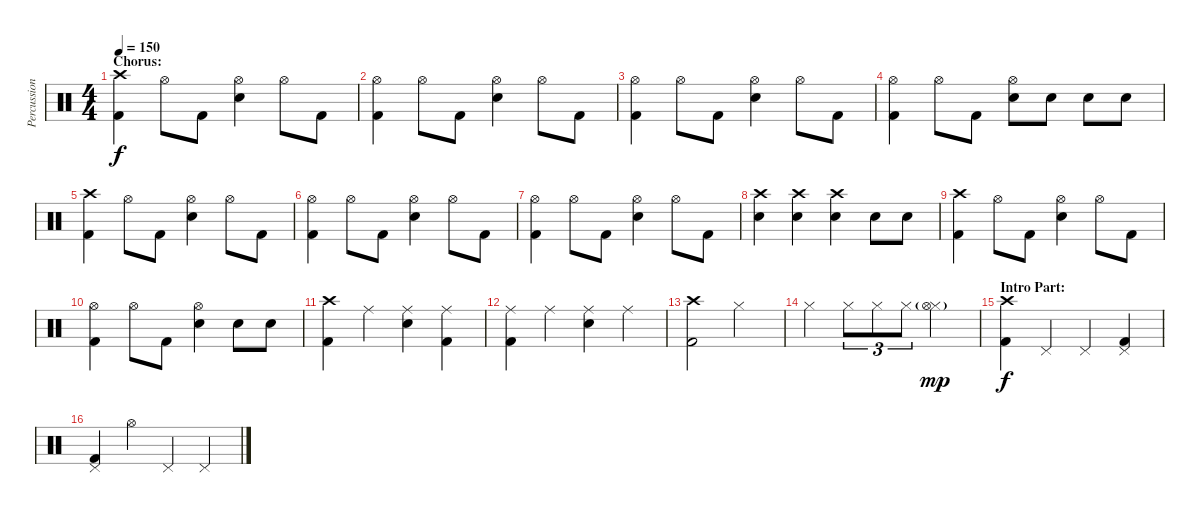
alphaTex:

\track ("Percussion" "Percussion") {instrument percussion}
\staff {score}
\articulation defaults
\ts (4 4)
\section ("" "Chorus:")
\tempo 150
\clef neutral
\ks c
("Crash high (hit)" "Kick (hit) 2").4{dy f} "Hi-Hat (open)".8 "Kick (hit) 2".8 ("Hi-Hat (open)" "Electric Snare (hit)").4 "Hi-Hat (open)".8 "Kick (hit) 2".8 |
("Hi-Hat (open)" "Kick (hit) 2").4 "Hi-Hat (open)".8 "Kick (hit) 2".8 ("Hi-Hat (open)" "Electric Snare (hit)").4 "Hi-Hat (open)".8 "Kick (hit) 2".8 |
("Hi-Hat (open)" "Kick (hit) 2").4 "Hi-Hat (open)".8 "Kick (hit) 2".8 ("Hi-Hat (open)" "Electric Snare (hit)").4 "Hi-Hat (open)".8 "Kick (hit) 2".8 |
("Hi-Hat (open)" "Kick (hit) 2").4 "Hi-Hat (open)".8 "Kick (hit) 2".8 ("Hi-Hat (open)" "Electric Snare (hit)").8 "Electric Snare (hit)".8 "Electric Snare (hit)".8 "Electric Snare (hit)".8 |
("Crash high (hit)" "Kick (hit) 2").4 "Hi-Hat (open)".8 "Kick (hit) 2".8 ("Hi-Hat (open)" "Electric Snare (hit)").4 "Hi-Hat (open)".8 "Kick (hit) 2".8 |
("Hi-Hat (open)" "Kick (hit) 2").4 "Hi-Hat (open)".8 "Kick (hit) 2".8 ("Hi-Hat (open)" "Electric Snare (hit)").4 "Hi-Hat (open)".8 "Kick (hit) 2".8 |
("Hi-Hat (open)" "Kick (hit) 2").4 "Hi-Hat (open)".8 "Kick (hit) 2".8 ("Hi-Hat (open)" "Electric Snare (hit)").4 "Hi-Hat (open)".8 "Kick (hit) 2".8 |
("Crash high (hit)" "Electric Snare (hit)").4 ("Crash high (hit)" "Electric Snare (hit)").4 ("Crash high (hit)" "Electric Snare (hit)").4 "Electric Snare (hit)".8 "Electric Snare (hit)".8 |
("Crash high (hit)" "Kick (hit) 2").4 "Hi-Hat (open)".8 "Kick (hit) 2".8 ("Hi-Hat (open)" "Electric Snare (hit)").4 "Hi-Hat (open)".8 "Kick (hit) 2".8 |
("Hi-Hat (open)" "Kick (hit) 2").4 "Hi-Hat (open)".8 "Kick (hit) 2".8 ("Hi-Hat (open)" "Electric Snare (hit)").4 "Electric Snare (hit)".8 "Electric Snare (hit)".8 |
("Crash high (hit)" "Kick (hit) 2").4 "Ride (middle)".4 ("Ride (middle)" "Electric Snare (hit)").4 ("Ride (middle)" "Kick (hit) 2").4 |
("Ride (middle)" "Kick (hit) 2").4 "Ride (middle)".4 ("Ride (middle)" "Electric Snare (hit)").4 "Ride (middle)".4 |
("Crash high (hit)" "Kick (hit) 2").2 "Hi-Hat (closed)".2 |
"Hi-Hat (closed)".4 "Hi-Hat (closed)".8{tu (3 2)} "Hi-Hat (closed)".8{tu (3 2)} "Hi-Hat (closed)".8{tu (3 2)} ("Hi-Hat (closed)" "Hi-Hat (open)"{g}).2{dy mp} |
\section ("" "Intro Part:")
("Crash high (hit)" "Kick (hit) 2").4{dy f} "Pedal Hi-Hat (hit)".4 "Pedal Hi-Hat (hit)".4 ("Pedal Hi-Hat (hit)" "Kick (hit) 2").4 |
("Pedal Hi-Hat (hit)" "Kick (hit) 2").4 "Hi-Hat (open)".4 "Pedal Hi-Hat (hit)".4 "Pedal Hi-Hat (hit)".4
